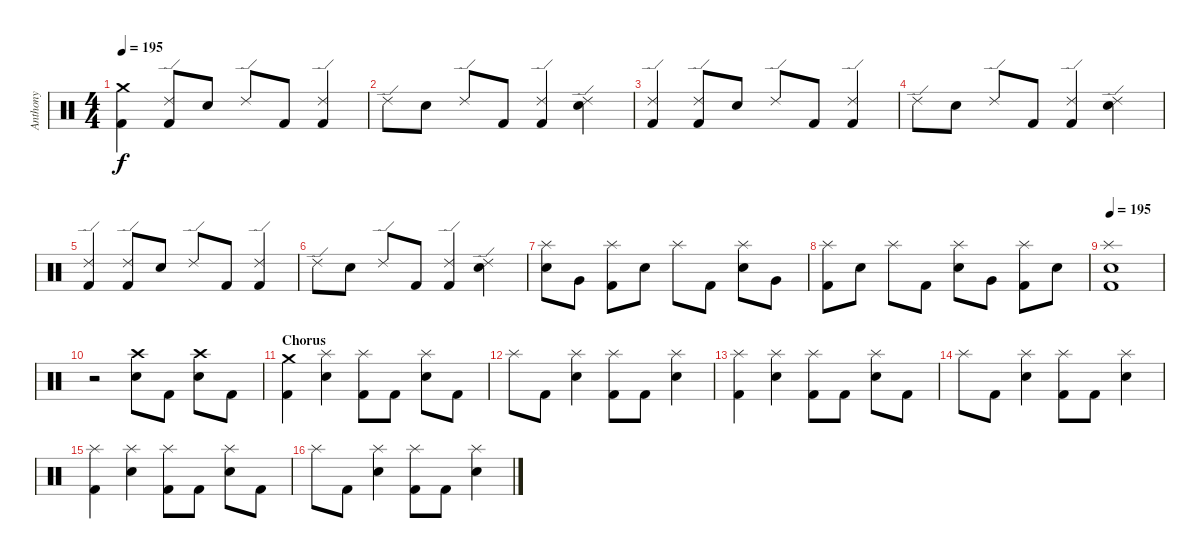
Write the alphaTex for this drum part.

\track ("Anthony" "Anthony") {instrument percussion}
\staff {score}
\articulation defaults
\ts (4 4)
\tempo 195
\clef neutral
\ks c
("Crash medium (hit)" "Kick (hit) 2").4{dy f} ("Ride (edge) 2" "Kick (hit) 2").8 "Electric Snare (hit)".8 "Ride (edge) 2".8 "Kick (hit) 2".8 ("Ride (edge) 2" "Kick (hit) 2").4 |
"Ride (edge) 2".8 "Electric Snare (hit)".8 "Ride (edge) 2".8 "Kick (hit) 2".8 ("Ride (edge) 2" "Kick (hit) 2").4 ("Ride (edge) 2" "Electric Snare (hit)").4 |
("Ride (edge) 2" "Kick (hit) 2").4 ("Ride (edge) 2" "Kick (hit) 2").8 "Electric Snare (hit)".8 "Ride (edge) 2".8 "Kick (hit) 2".8 ("Ride (edge) 2" "Kick (hit) 2").4 |
"Ride (edge) 2".8 "Electric Snare (hit)".8 "Ride (edge) 2".8 "Kick (hit) 2".8 ("Ride (edge) 2" "Kick (hit) 2").4 ("Ride (edge) 2" "Electric Snare (hit)").4 |
("Ride (edge) 2" "Kick (hit) 2").4 ("Ride (edge) 2" "Kick (hit) 2").8 "Electric Snare (hit)".8 "Ride (edge) 2".8 "Kick (hit) 2".8 ("Ride (edge) 2" "Kick (hit) 2").4 |
"Ride (edge) 2".8 "Electric Snare (hit)".8 "Ride (edge) 2".8 "Kick (hit) 2".8 ("Ride (edge) 2" "Kick (hit) 2").4 ("Ride (edge) 2" "Electric Snare (hit)").4 |
("Splash (hit)" "Electric Snare (hit)").8 "Very Low Tom (hit)".8 ("Splash (hit)" "Kick (hit) 2").8 "Electric Snare (hit)".8 "Splash (hit)".8 "Kick (hit) 2".8 ("Splash (hit)" "Electric Snare (hit)").8 "Very Low Tom (hit)".8 |
("Splash (hit)" "Kick (hit) 2").8 "Electric Snare (hit)".8 "Splash (hit)".8 "Kick (hit) 2".8 ("Splash (hit)" "Electric Snare (hit)").8 "Very Low Tom (hit)".8 ("Splash (hit)" "Kick (hit) 2").8 "Electric Snare (hit)".8 |
\tempo 195
("Splash (hit)" "Electric Snare (hit)" "Kick (hit) 2").1 |
r.2 ("Crash high (hit)" "Electric Snare (hit)").8 "Kick (hit) 2".8 ("Crash high (hit)" "Electric Snare (hit)").8 "Kick (hit) 2".8 |
\section ("" "Chorus")
("Crash medium (hit)" "Kick (hit) 2").4 ("Splash (hit)" "Electric Snare (hit)").4 ("Splash (hit)" "Kick (hit) 2").8 "Kick (hit) 2".8 ("Splash (hit)" "Electric Snare (hit)").8 "Kick (hit) 2".8 |
"Splash (hit)".8 "Kick (hit) 2".8 ("Splash (hit)" "Electric Snare (hit)").4 ("Splash (hit)" "Kick (hit) 2").8 "Kick (hit) 2".8 ("Splash (hit)" "Electric Snare (hit)").4 |
("Splash (hit)" "Kick (hit) 2").4 ("Splash (hit)" "Electric Snare (hit)").4 ("Splash (hit)" "Kick (hit) 2").8 "Kick (hit) 2".8 ("Splash (hit)" "Electric Snare (hit)").8 "Kick (hit) 2".8 |
"Splash (hit)".8 "Kick (hit) 2".8 ("Splash (hit)" "Electric Snare (hit)").4 ("Splash (hit)" "Kick (hit) 2").8 "Kick (hit) 2".8 ("Splash (hit)" "Electric Snare (hit)").4 |
("Splash (hit)" "Kick (hit) 2").4 ("Splash (hit)" "Electric Snare (hit)").4 ("Splash (hit)" "Kick (hit) 2").8 "Kick (hit) 2".8 ("Splash (hit)" "Electric Snare (hit)").8 "Kick (hit) 2".8 |
"Splash (hit)".8 "Kick (hit) 2".8 ("Splash (hit)" "Electric Snare (hit)").4 ("Splash (hit)" "Kick (hit) 2").8 "Kick (hit) 2".8 ("Splash (hit)" "Electric Snare (hit)").4
